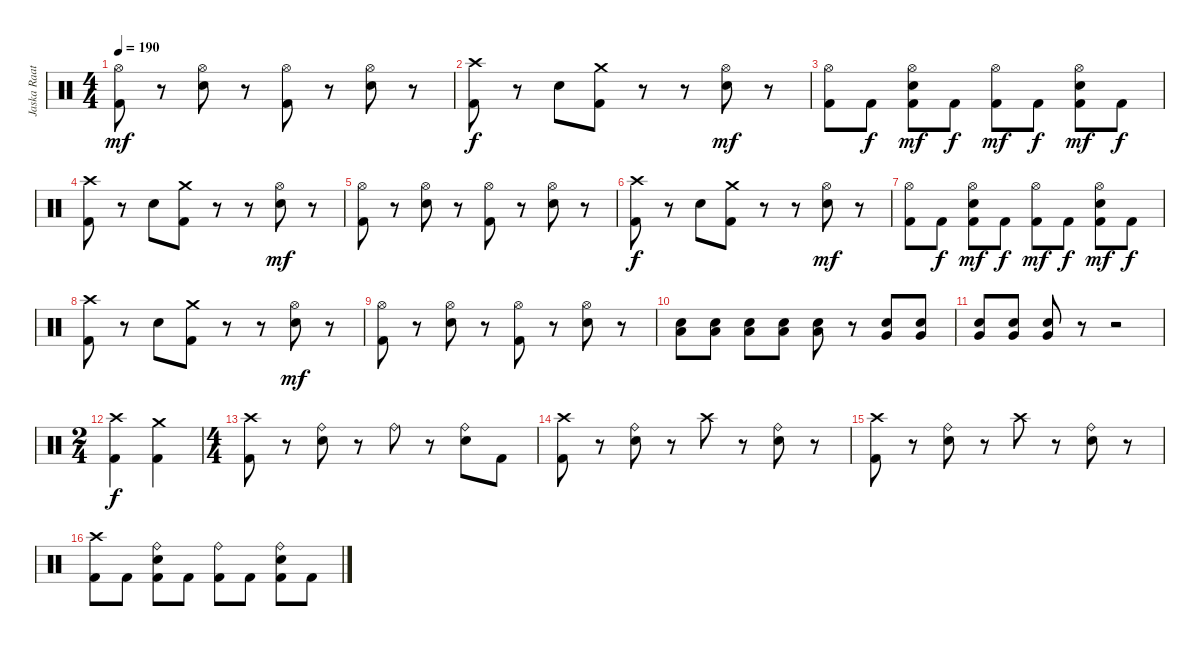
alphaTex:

\track ("Jaska Raatikainen" "Jaska Raat") {instrument percussion}
\staff {score}
\articulation defaults
\ts (4 4)
\tempo 190
\clef neutral
\ks c
("Hi-Hat (open)" "Kick (hit) 2").8{dy mf} r.8 ("Hi-Hat (open)" "Snare (hit) 2").8 r.8 ("Hi-Hat (open)" "Kick (hit) 2").8 r.8 ("Hi-Hat (open)" "Snare (hit) 2").8 r.8 |
("Crash high (hit)" "Kick (hit) 2").8{dy f} r.8 "Snare (hit) 2".8 ("Crash medium (hit)" "Kick (hit) 2").8 r.8 r.8 ("Hi-Hat (open)" "Snare (hit) 2").8{dy mf} r.8 |
("Hi-Hat (open)" "Kick (hit) 2").8 "Kick (hit) 2".8{dy f} ("Hi-Hat (open)" "Snare (hit) 2" "Kick (hit) 2").8{dy mf} "Kick (hit) 2".8{dy f} ("Hi-Hat (open)" "Kick (hit) 2").8{dy mf} "Kick (hit) 2".8{dy f} ("Hi-Hat (open)" "Snare (hit) 2" "Kick (hit) 2").8{dy mf} "Kick (hit) 2".8{dy f} |
("Crash high (hit)" "Kick (hit) 2").8 r.8 "Snare (hit) 2".8 ("Crash medium (hit)" "Kick (hit) 2").8 r.8 r.8 ("Hi-Hat (open)" "Snare (hit) 2").8{dy mf} r.8 |
("Hi-Hat (open)" "Kick (hit) 2").8 r.8 ("Hi-Hat (open)" "Snare (hit) 2").8 r.8 ("Hi-Hat (open)" "Kick (hit) 2").8 r.8 ("Hi-Hat (open)" "Snare (hit) 2").8 r.8 |
("Crash high (hit)" "Kick (hit) 2").8{dy f} r.8 "Snare (hit) 2".8 ("Crash medium (hit)" "Kick (hit) 2").8 r.8 r.8 ("Hi-Hat (open)" "Snare (hit) 2").8{dy mf} r.8 |
("Hi-Hat (open)" "Kick (hit) 2").8 "Kick (hit) 2".8{dy f} ("Hi-Hat (open)" "Snare (hit) 2" "Kick (hit) 2").8{dy mf} "Kick (hit) 2".8{dy f} ("Hi-Hat (open)" "Kick (hit) 2").8{dy mf} "Kick (hit) 2".8{dy f} ("Hi-Hat (open)" "Snare (hit) 2" "Kick (hit) 2").8{dy mf} "Kick (hit) 2".8{dy f} |
("Crash high (hit)" "Kick (hit) 2").8 r.8 "Snare (hit) 2".8 ("Crash medium (hit)" "Kick (hit) 2").8 r.8 r.8 ("Hi-Hat (open)" "Snare (hit) 2").8{dy mf} r.8 |
("Hi-Hat (open)" "Kick (hit) 2").8 r.8 ("Hi-Hat (open)" "Snare (hit) 2").8 r.8 ("Hi-Hat (open)" "Kick (hit) 2").8 r.8 ("Hi-Hat (open)" "Snare (hit) 2").8 r.8 |
("Snare (hit) 2" "Low Tom (hit)").8 ("Snare (hit) 2" "Low Tom (hit)").8 ("Snare (hit) 2" "Low Tom (hit)").8 ("Snare (hit) 2" "Low Tom (hit)").8 ("Snare (hit) 2" "Low Tom (hit)").8 r.8 ("Snare (hit) 2" "Very Low Tom (hit)").8 ("Snare (hit) 2" "Very Low Tom (hit)").8 |
("Snare (hit) 2" "Very Low Tom (hit)").8 ("Snare (hit) 2" "Very Low Tom (hit)").8 ("Snare (hit) 2" "Very Low Tom (hit)").8 r.8 r.2 |
\ts (2 4)
("Crash high (hit)" "Kick (hit) 2").4{dy f} ("Crash medium (hit)" "Kick (hit) 2").4 |
\ts (4 4)
("Crash high (hit)" "Kick (hit) 2").8 r.8 ("Ride (bell)" "Snare (hit) 2").8 r.8 "Ride (bell)".8 r.8 ("Ride (bell)" "Snare (hit) 2").8 "Kick (hit) 2".8 |
("Crash high (hit)" "Kick (hit) 2").8 r.8 ("Ride (bell)" "Snare (hit) 2").8 r.8 "Crash high (hit)".8 r.8 ("Ride (bell)" "Snare (hit) 2").8 r.8 |
("Crash high (hit)" "Kick (hit) 2").8 r.8 ("Ride (bell)" "Snare (hit) 2").8 r.8 "Crash high (hit)".8 r.8 ("Ride (bell)" "Snare (hit) 2").8 r.8 |
("Crash high (hit)" "Kick (hit) 2").8 "Kick (hit) 2".8 ("Ride (bell)" "Snare (hit) 2" "Kick (hit) 2").8 "Kick (hit) 2".8 ("Ride (bell)" "Kick (hit) 2").8 "Kick (hit) 2".8 ("Ride (bell)" "Snare (hit) 2" "Kick (hit) 2").8 "Kick (hit) 2".8
